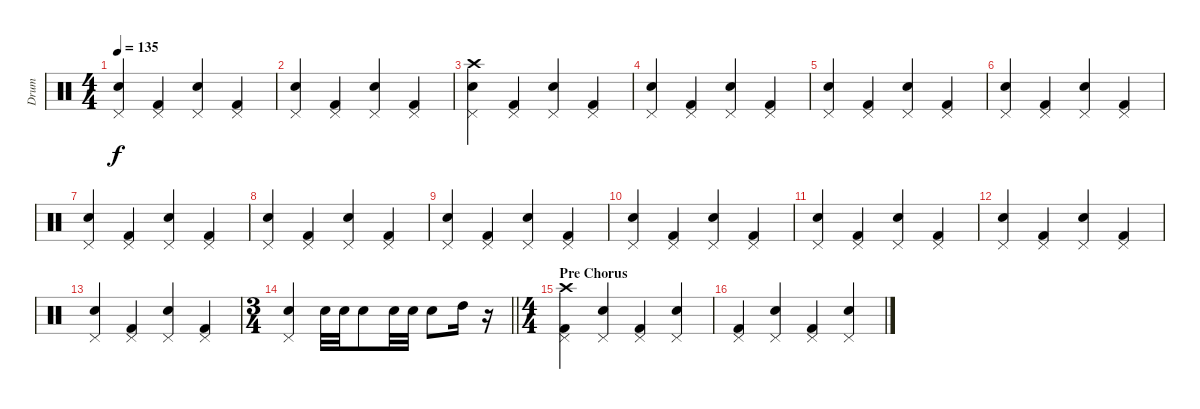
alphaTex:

\track ("Drum" "Drum") {instrument percussion}
\staff {score}
\articulation defaults
\ts (4 4)
\tempo 135
\clef neutral
\ks c
("Electric Snare (hit)" "Pedal Hi-Hat (hit)").4{dy f} ("Kick (hit) 2" "Pedal Hi-Hat (hit)").4 ("Electric Snare (hit)" "Pedal Hi-Hat (hit)").4 ("Kick (hit) 2" "Pedal Hi-Hat (hit)").4 |
("Electric Snare (hit)" "Pedal Hi-Hat (hit)").4 ("Kick (hit) 2" "Pedal Hi-Hat (hit)").4 ("Electric Snare (hit)" "Pedal Hi-Hat (hit)").4 ("Kick (hit) 2" "Pedal Hi-Hat (hit)").4 |
("Electric Snare (hit)" "Pedal Hi-Hat (hit)" "Crash high (hit)").4 ("Kick (hit) 2" "Pedal Hi-Hat (hit)").4 ("Electric Snare (hit)" "Pedal Hi-Hat (hit)").4 ("Kick (hit) 2" "Pedal Hi-Hat (hit)").4 |
("Electric Snare (hit)" "Pedal Hi-Hat (hit)").4 ("Kick (hit) 2" "Pedal Hi-Hat (hit)").4 ("Electric Snare (hit)" "Pedal Hi-Hat (hit)").4 ("Kick (hit) 2" "Pedal Hi-Hat (hit)").4 |
("Electric Snare (hit)" "Pedal Hi-Hat (hit)").4 ("Kick (hit) 2" "Pedal Hi-Hat (hit)").4 ("Electric Snare (hit)" "Pedal Hi-Hat (hit)").4 ("Kick (hit) 2" "Pedal Hi-Hat (hit)").4 |
("Electric Snare (hit)" "Pedal Hi-Hat (hit)").4 ("Kick (hit) 2" "Pedal Hi-Hat (hit)").4 ("Electric Snare (hit)" "Pedal Hi-Hat (hit)").4 ("Kick (hit) 2" "Pedal Hi-Hat (hit)").4 |
("Electric Snare (hit)" "Pedal Hi-Hat (hit)").4 ("Kick (hit) 2" "Pedal Hi-Hat (hit)").4 ("Electric Snare (hit)" "Pedal Hi-Hat (hit)").4 ("Kick (hit) 2" "Pedal Hi-Hat (hit)").4 |
("Electric Snare (hit)" "Pedal Hi-Hat (hit)").4 ("Kick (hit) 2" "Pedal Hi-Hat (hit)").4 ("Electric Snare (hit)" "Pedal Hi-Hat (hit)").4 ("Kick (hit) 2" "Pedal Hi-Hat (hit)").4 |
("Electric Snare (hit)" "Pedal Hi-Hat (hit)").4 ("Kick (hit) 2" "Pedal Hi-Hat (hit)").4 ("Electric Snare (hit)" "Pedal Hi-Hat (hit)").4 ("Kick (hit) 2" "Pedal Hi-Hat (hit)").4 |
("Electric Snare (hit)" "Pedal Hi-Hat (hit)").4 ("Kick (hit) 2" "Pedal Hi-Hat (hit)").4 ("Electric Snare (hit)" "Pedal Hi-Hat (hit)").4 ("Kick (hit) 2" "Pedal Hi-Hat (hit)").4 |
("Electric Snare (hit)" "Pedal Hi-Hat (hit)").4 ("Kick (hit) 2" "Pedal Hi-Hat (hit)").4 ("Electric Snare (hit)" "Pedal Hi-Hat (hit)").4 ("Kick (hit) 2" "Pedal Hi-Hat (hit)").4 |
("Electric Snare (hit)" "Pedal Hi-Hat (hit)").4 ("Kick (hit) 2" "Pedal Hi-Hat (hit)").4 ("Electric Snare (hit)" "Pedal Hi-Hat (hit)").4 ("Kick (hit) 2" "Pedal Hi-Hat (hit)").4 |
("Electric Snare (hit)" "Pedal Hi-Hat (hit)").4 ("Kick (hit) 2" "Pedal Hi-Hat (hit)").4 ("Electric Snare (hit)" "Pedal Hi-Hat (hit)").4 ("Kick (hit) 2" "Pedal Hi-Hat (hit)").4 |
\ts (3 4)
\barLineRight lightlight
("Electric Snare (hit)" "Pedal Hi-Hat (hit)").4 "Electric Snare (hit)".32 "Electric Snare (hit)".32 "Electric Snare (hit)".8 "Electric Snare (hit)".32 "Electric Snare (hit)".32 "Electric Snare (hit)".8 "High Tom (hit)".16 r.16 |
\ts (4 4)
\section ("" "Pre Chorus")
("Crash high (hit)" "Kick (hit) 2" "Pedal Hi-Hat (hit)").4 ("Electric Snare (hit)" "Pedal Hi-Hat (hit)").4 ("Kick (hit) 2" "Pedal Hi-Hat (hit)").4 ("Electric Snare (hit)" "Pedal Hi-Hat (hit)").4 |
("Kick (hit) 2" "Pedal Hi-Hat (hit)").4 ("Electric Snare (hit)" "Pedal Hi-Hat (hit)").4 ("Kick (hit) 2" "Pedal Hi-Hat (hit)").4 ("Electric Snare (hit)" "Pedal Hi-Hat (hit)").4
